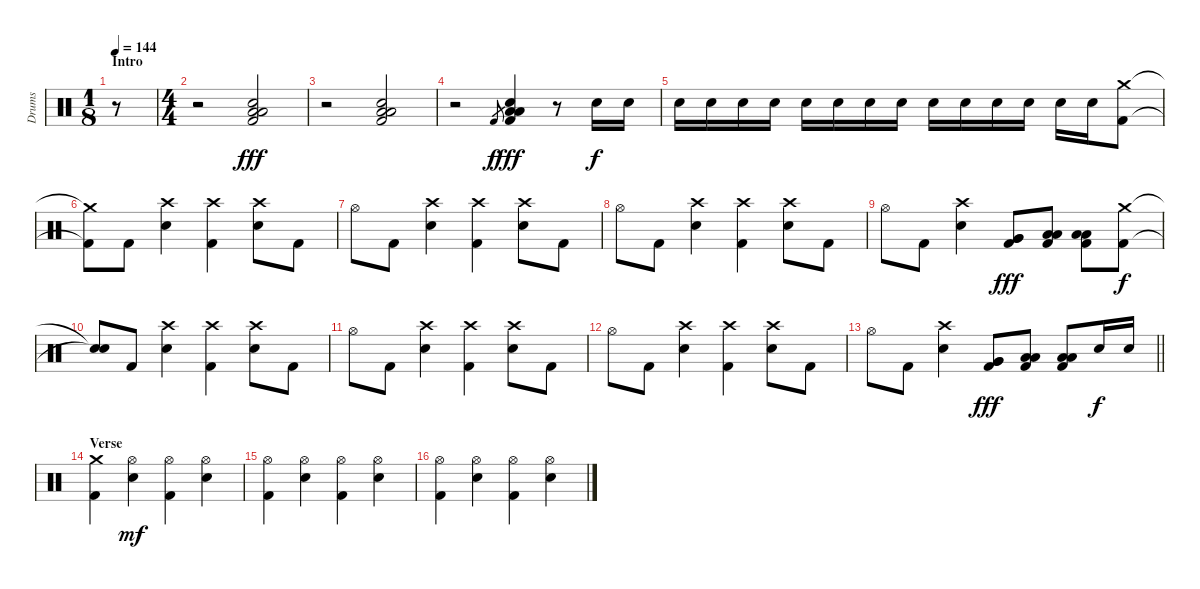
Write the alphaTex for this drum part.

\track ("Drums" "Drums") {instrument percussion}
\staff {score}
\articulation defaults
\ts (1 8)
\section ("" "Intro")
\tempo 144
\clef neutral
\ks c
r.8{dy fff} |
\ts (4 4)
r.2 ("Kick (hit) 2" "Low Floor Tom (hit)" "Low Floor Tom (hit)" "Snare (hit) 2").2 |
r.2 ("Kick (hit) 2" "Low Floor Tom (hit)" "Low Floor Tom (hit)" "Snare (hit) 2").2 |
r.2 "Kick (hit) 2".8{gr dy f} ("Kick (hit) 2" "Low Floor Tom (hit)" "Low Floor Tom (hit)" "Snare (hit) 2").4{dy fff} r.8{volume 0} "Snare (hit) 2".16{dy f volume 9} "Snare (hit) 2".16 |
"Snare (hit) 2".16 "Snare (hit) 2".16 "Snare (hit) 2".16 "Snare (hit) 2".16 "Snare (hit) 2".16 "Snare (hit) 2".16 "Snare (hit) 2".16 "Snare (hit) 2".16 "Snare (hit) 2".16 "Snare (hit) 2".16 "Snare (hit) 2".16 "Snare (hit) 2".16 "Snare (hit) 2".16 "Snare (hit) 2".16 ("Kick (hit) 2" "Crash medium (hit)").8{volume 13} |
("Kick (hit) 2"{t} "Crash medium (hit)"{t}).8 "Kick (hit) 2".8 ("Crash high (hit)" "Snare (hit) 2").4 ("Kick (hit) 2" "Crash high (hit)").4 ("Crash high (hit)" "Snare (hit) 2").8 "Kick (hit) 2".8 |
"Hi-Hat (open)".8 "Kick (hit) 2".8 ("Crash high (hit)" "Snare (hit) 2").4 ("Kick (hit) 2" "Crash high (hit)").4 ("Crash high (hit)" "Snare (hit) 2").8 "Kick (hit) 2".8 |
"Hi-Hat (open)".8 "Kick (hit) 2".8 ("Crash high (hit)" "Snare (hit) 2").4 ("Kick (hit) 2" "Crash high (hit)").4 ("Crash high (hit)" "Snare (hit) 2").8 "Kick (hit) 2".8 |
"Hi-Hat (open)".8 "Kick (hit) 2".8 ("Crash high (hit)" "Snare (hit) 2").4 ("Kick (hit) 2" "Very Low Tom (hit)" "Very Low Tom (hit)").8{dy fff} ("Kick (hit) 2" "Low Floor Tom (hit)" "Low Floor Tom (hit)").8 ("Kick (hit) 2" "Low Floor Tom (hit)" "Low Floor Tom (hit)").8 ("Kick (hit) 2" "Crash medium (hit)").8{dy f} |
("Snare (hit)"{t} "Snare (hit)"{t}).8 "Kick (hit) 2".8 ("Crash high (hit)" "Snare (hit) 2").4 ("Kick (hit) 2" "Crash high (hit)").4 ("Crash high (hit)" "Snare (hit) 2").8 "Kick (hit) 2".8 |
"Hi-Hat (open)".8 "Kick (hit) 2".8 ("Crash high (hit)" "Snare (hit) 2").4 ("Kick (hit) 2" "Crash high (hit)").4 ("Crash high (hit)" "Snare (hit) 2").8 "Kick (hit) 2".8 |
"Hi-Hat (open)".8 "Kick (hit) 2".8 ("Crash high (hit)" "Snare (hit) 2").4 ("Kick (hit) 2" "Crash high (hit)").4 ("Crash high (hit)" "Snare (hit) 2").8 "Kick (hit) 2".8 |
\barLineRight lightlight "Hi-Hat (open)".8 "Kick (hit) 2".8
("Crash high (hit)" "Snare (hit) 2").4 ("Kick (hit) 2" "Very Low Tom (hit)" "Very Low Tom (hit)").8{dy fff} ("Kick (hit) 2" "Low Floor Tom (hit)" "Low Floor Tom (hit)").8 ("Kick (hit) 2" "Low Floor Tom (hit)" "Low Floor Tom (hit)").8 "Snare (hit) 2".16{dy f} "Snare (hit) 2".16 |
\section ("" "Verse")
("Kick (hit) 2" "Crash medium (hit)").4 ("Hi-Hat (open)" "Snare (hit) 2").4{dy mf} ("Kick (hit) 2" "Hi-Hat (open)").4 ("Hi-Hat (open)" "Snare (hit) 2").4 |
("Kick (hit) 2" "Hi-Hat (open)").4 ("Hi-Hat (open)" "Snare (hit) 2").4 ("Kick (hit) 2" "Hi-Hat (open)").4 ("Hi-Hat (open)" "Snare (hit) 2").4 |
("Kick (hit) 2" "Hi-Hat (open)").4 ("Hi-Hat (open)" "Snare (hit) 2").4 ("Kick (hit) 2" "Hi-Hat (open)").4 ("Hi-Hat (open)" "Snare (hit) 2").4
